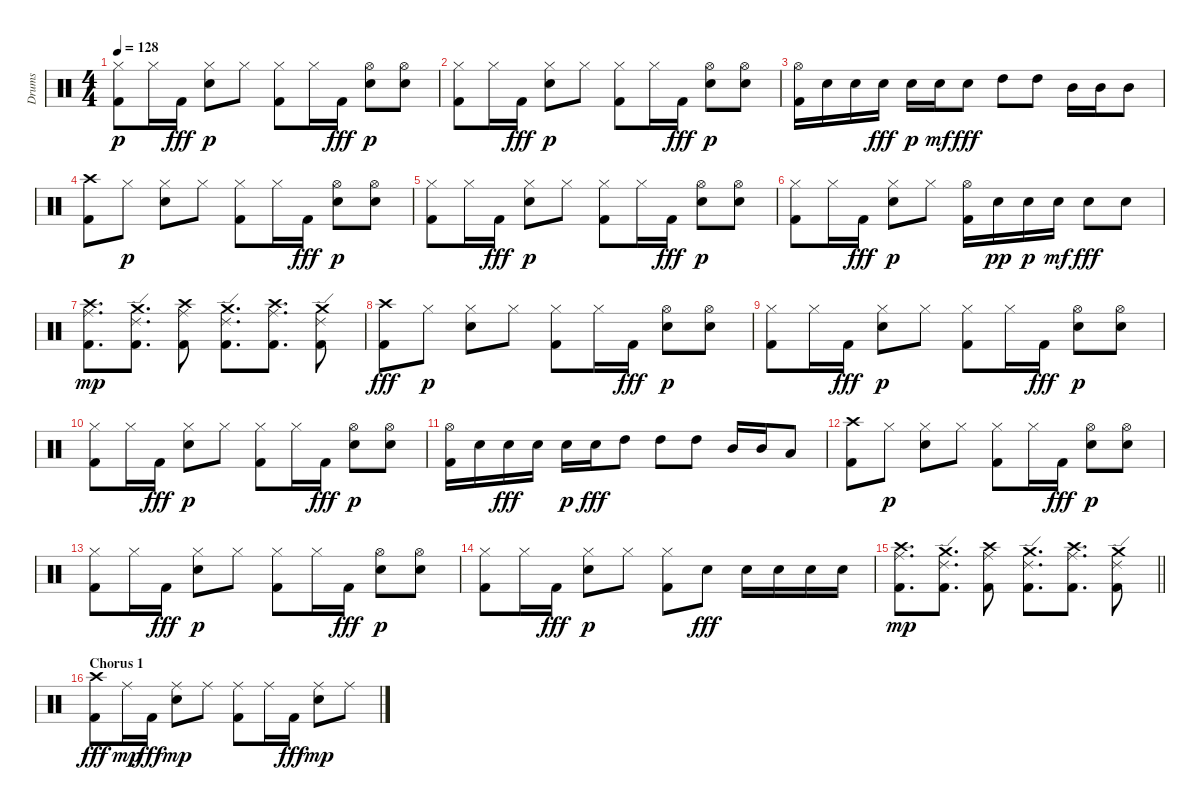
\track ("Drums" "Drums") {instrument percussion}
\staff {score}
\articulation defaults
\ts (4 4)
\tempo 128
\clef neutral
\ks c
("Kick (hit) 2" "Hi-Hat (closed)").8{dy p} "Hi-Hat (closed)".16 "Kick (hit) 2".16{dy fff} ("Electric Snare (hit)" "Hi-Hat (closed)").8{dy p} "Hi-Hat (closed)".8 ("Kick (hit) 2" "Hi-Hat (closed)").8 "Hi-Hat (closed)".16 "Kick (hit) 2".16{dy fff} ("Electric Snare (hit)" "Hi-Hat (open)").8{dy p} ("Electric Snare (hit)" "Hi-Hat (open)").8 |
("Kick (hit) 2" "Hi-Hat (closed)").8 "Hi-Hat (closed)".16 "Kick (hit) 2".16{dy fff} ("Electric Snare (hit)" "Hi-Hat (closed)").8{dy p} "Hi-Hat (closed)".8 ("Kick (hit) 2" "Hi-Hat (closed)").8 "Hi-Hat (closed)".16 "Kick (hit) 2".16{dy fff} ("Electric Snare (hit)" "Hi-Hat (open)").8{dy p} ("Electric Snare (hit)" "Hi-Hat (open)").8 |
("Kick (hit) 2" "Hi-Hat (open)").16 "Electric Snare (hit)".16 "Electric Snare (hit)".16 "Electric Snare (hit)".16{dy fff} "Electric Snare (hit)".16{dy p} "Electric Snare (hit)".16{dy mf} "Electric Snare (hit)".8{dy fff} "High Tom (hit)".8 "High Tom (hit)".8 "Mid Tom (hit)".16 "Mid Tom (hit)".16 "Mid Tom (hit)".8 |
("Kick (hit) 2" "Crash high (hit)").8 "Hi-Hat (closed)".8{dy p} ("Electric Snare (hit)" "Hi-Hat (closed)").8 "Hi-Hat (closed)".8 ("Kick (hit) 2" "Hi-Hat (closed)").8 "Hi-Hat (closed)".16 "Kick (hit) 2".16{dy fff} ("Electric Snare (hit)" "Hi-Hat (open)").8{dy p} ("Electric Snare (hit)" "Hi-Hat (open)").8 |
("Kick (hit) 2" "Hi-Hat (closed)").8 "Hi-Hat (closed)".16 "Kick (hit) 2".16{dy fff} ("Electric Snare (hit)" "Hi-Hat (closed)").8{dy p} "Hi-Hat (closed)".8 ("Kick (hit) 2" "Hi-Hat (closed)").8 "Hi-Hat (closed)".16 "Kick (hit) 2".16{dy fff} ("Electric Snare (hit)" "Hi-Hat (open)").8{dy p} ("Electric Snare (hit)" "Hi-Hat (open)").8 |
("Kick (hit) 2" "Hi-Hat (closed)").8 "Hi-Hat (closed)".16 "Kick (hit) 2".16{dy fff} ("Electric Snare (hit)" "Hi-Hat (closed)").8{dy p} "Hi-Hat (closed)".8 ("Kick (hit) 2" "Hi-Hat (open)").16 "Electric Snare (hit)".16{dy pp} "Electric Snare (hit)".16{dy p} "Electric Snare (hit)".16{dy mf} "Electric Snare (hit)".8{dy fff} "Electric Snare (hit)".8 |
("Kick (hit) 2" "Ride (middle)" "Crash high (hit)").8{d dy mp} ("Kick (hit) 2" "Ride (edge) 2" "Crash medium (hit)").8{d} ("Kick (hit) 2" "Ride (middle)" "Crash high (hit)").8 ("Kick (hit) 2" "Ride (edge) 2" "Crash medium (hit)").8{d} ("Kick (hit) 2" "Ride (middle)" "Crash high (hit)").8{d} ("Kick (hit) 2" "Ride (edge) 2" "Crash medium (hit)").8 |
("Kick (hit) 2" "Crash high (hit)").8{dy fff} "Hi-Hat (closed)".8{dy p} ("Electric Snare (hit)" "Hi-Hat (closed)").8 "Hi-Hat (closed)".8 ("Kick (hit) 2" "Hi-Hat (closed)").8 "Hi-Hat (closed)".16 "Kick (hit) 2".16{dy fff} ("Electric Snare (hit)" "Hi-Hat (open)").8{dy p} ("Electric Snare (hit)" "Hi-Hat (open)").8 |
("Kick (hit) 2" "Hi-Hat (closed)").8 "Hi-Hat (closed)".16 "Kick (hit) 2".16{dy fff} ("Electric Snare (hit)" "Hi-Hat (closed)").8{dy p} "Hi-Hat (closed)".8 ("Kick (hit) 2" "Hi-Hat (closed)").8 "Hi-Hat (closed)".16 "Kick (hit) 2".16{dy fff} ("Electric Snare (hit)" "Hi-Hat (open)").8{dy p} ("Electric Snare (hit)" "Hi-Hat (open)").8 |
("Kick (hit) 2" "Hi-Hat (closed)").8 "Hi-Hat (closed)".16 "Kick (hit) 2".16{dy fff} ("Electric Snare (hit)" "Hi-Hat (closed)").8{dy p} "Hi-Hat (closed)".8 ("Kick (hit) 2" "Hi-Hat (closed)").8 "Hi-Hat (closed)".16 "Kick (hit) 2".16{dy fff} ("Electric Snare (hit)" "Hi-Hat (open)").8{dy p} ("Electric Snare (hit)" "Hi-Hat (open)").8 |
("Kick (hit) 2" "Hi-Hat (open)").16 "Electric Snare (hit)".16 "Electric Snare (hit)".16{dy fff} "Electric Snare (hit)".16 "Electric Snare (hit)".16{dy p} "Electric Snare (hit)".16{dy fff} "High Tom (hit)".8 "High Tom (hit)".8 "High Tom (hit)".8 "Mid Tom (hit)".16 "Mid Tom (hit)".16 "Low Tom (hit)".8 |
("Kick (hit) 2" "Crash high (hit)").8 "Hi-Hat (closed)".8{dy p} ("Electric Snare (hit)" "Hi-Hat (closed)").8 "Hi-Hat (closed)".8 ("Kick (hit) 2" "Hi-Hat (closed)").8 "Hi-Hat (closed)".16 "Kick (hit) 2".16{dy fff} ("Electric Snare (hit)" "Hi-Hat (open)").8{dy p} ("Electric Snare (hit)" "Hi-Hat (open)").8 |
("Kick (hit) 2" "Hi-Hat (closed)").8 "Hi-Hat (closed)".16 "Kick (hit) 2".16{dy fff} ("Electric Snare (hit)" "Hi-Hat (closed)").8{dy p} "Hi-Hat (closed)".8 ("Kick (hit) 2" "Hi-Hat (closed)").8 "Hi-Hat (closed)".16 "Kick (hit) 2".16{dy fff} ("Electric Snare (hit)" "Hi-Hat (open)").8{dy p} ("Electric Snare (hit)" "Hi-Hat (open)").8 |
("Kick (hit) 2" "Hi-Hat (closed)").8 "Hi-Hat (closed)".16 "Kick (hit) 2".16{dy fff} ("Electric Snare (hit)" "Hi-Hat (closed)").8{dy p} "Hi-Hat (closed)".8 ("Kick (hit) 2" "Hi-Hat (closed)").8 "Electric Snare (hit)".8{dy fff} "Electric Snare (hit)".16 "Electric Snare (hit)".16 "Electric Snare (hit)".16 "Electric Snare (hit)".16 |
\barLineRight lightlight
("Kick (hit) 2" "Ride (middle)" "Crash high (hit)").8{d dy mp} ("Kick (hit) 2" "Ride (edge) 2" "Crash medium (hit)").8{d} ("Kick (hit) 2" "Ride (middle)" "Crash high (hit)").8 ("Kick (hit) 2" "Ride (edge) 2" "Crash medium (hit)").8{d} ("Kick (hit) 2" "Ride (middle)" "Crash high (hit)").8{d} ("Kick (hit) 2" "Ride (edge) 2" "Crash medium (hit)").8 |
\section ("" "Chorus 1")
("Kick (hit) 2" "Crash high (hit)").8{dy fff} "Ride (middle)".16{dy mp} "Kick (hit) 2".16{dy fff} ("Electric Snare (hit)" "Ride (middle)").8{dy mp} "Ride (middle)".8 ("Kick (hit) 2" "Ride (middle)").8 "Ride (middle)".16 "Kick (hit) 2".16{dy fff} ("Electric Snare (hit)" "Ride (middle)").8{dy mp} "Ride (middle)".8
